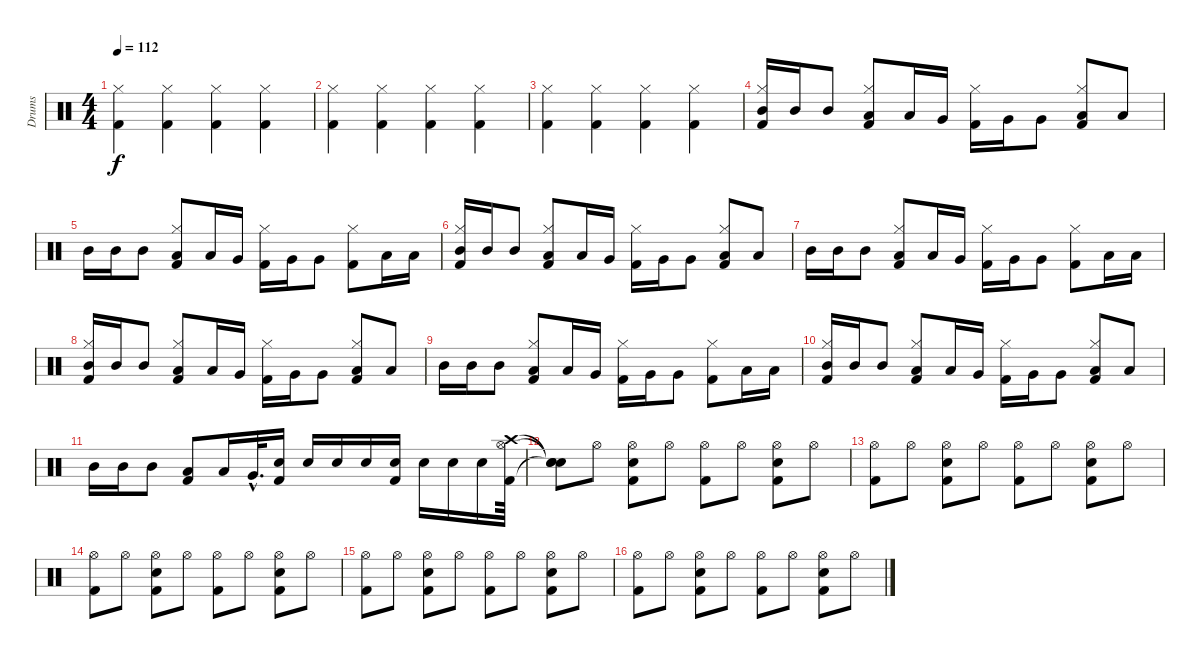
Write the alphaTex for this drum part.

\track ("Drums" "Drums") {instrument percussion}
\staff {score}
\articulation defaults
\ts (4 4)
\tempo 112
\clef neutral
\ks c
("Kick (hit) 2" "Hi-Hat (closed)").4{dy f} ("Hi-Hat (closed)" "Kick (hit) 2").4 ("Kick (hit) 2" "Hi-Hat (closed)").4 ("Hi-Hat (closed)" "Kick (hit) 2").4 |
("Kick (hit) 2" "Hi-Hat (closed)").4 ("Hi-Hat (closed)" "Kick (hit) 2").4 ("Kick (hit) 2" "Hi-Hat (closed)").4 ("Hi-Hat (closed)" "Kick (hit) 2").4 |
("Kick (hit) 2" "Hi-Hat (closed)").4 ("Hi-Hat (closed)" "Kick (hit) 2").4 ("Kick (hit) 2" "Hi-Hat (closed)").4 ("Hi-Hat (closed)" "Kick (hit) 2").4 |
("Hi-Hat (closed)" "Kick (hit) 2" "Mid Tom (hit)").16 "Mid Tom (hit)".16 "Mid Tom (hit)".8 ("Hi-Hat (closed)" "Low Tom (hit)" "Kick (hit) 2").8 "Low Tom (hit)".16 "Very Low Tom (hit)".16 ("Kick (hit) 2" "Hi-Hat (closed)").16 "Very Low Tom (hit)".16 "Very Low Tom (hit)".8 ("Low Floor Tom (hit)" "Kick (hit) 2" "Hi-Hat (closed)").8 "Low Floor Tom (hit)".8 |
"Mid Tom (hit)".16 "Mid Tom (hit)".16 "Mid Tom (hit)".8 ("Hi-Hat (closed)" "Kick (hit) 2" "Low Tom (hit)").8 "Low Tom (hit)".16 "Very Low Tom (hit)".16 ("Kick (hit) 2" "Hi-Hat (closed)").16 "Very Low Tom (hit)".16 "Very Low Tom (hit)".8 ("Kick (hit) 2" "Hi-Hat (closed)").8 "Low Floor Tom (hit)".16 "Low Floor Tom (hit)".16 |
("Hi-Hat (closed)" "Kick (hit) 2" "Mid Tom (hit)").16 "Mid Tom (hit)".16 "Mid Tom (hit)".8 ("Hi-Hat (closed)" "Low Tom (hit)" "Kick (hit) 2").8 "Low Tom (hit)".16 "Very Low Tom (hit)".16 ("Kick (hit) 2" "Hi-Hat (closed)").16 "Very Low Tom (hit)".16 "Very Low Tom (hit)".8 ("Low Floor Tom (hit)" "Kick (hit) 2" "Hi-Hat (closed)").8 "Low Floor Tom (hit)".8 |
"Mid Tom (hit)".16 "Mid Tom (hit)".16 "Mid Tom (hit)".8 ("Hi-Hat (closed)" "Kick (hit) 2" "Low Tom (hit)").8 "Low Tom (hit)".16 "Very Low Tom (hit)".16 ("Kick (hit) 2" "Hi-Hat (closed)").16 "Very Low Tom (hit)".16 "Very Low Tom (hit)".8 ("Kick (hit) 2" "Hi-Hat (closed)").8 "Low Floor Tom (hit)".16 "Low Floor Tom (hit)".16 |
("Hi-Hat (closed)" "Kick (hit) 2" "Mid Tom (hit)").16 "Mid Tom (hit)".16 "Mid Tom (hit)".8 ("Hi-Hat (closed)" "Low Tom (hit)" "Kick (hit) 2").8 "Low Tom (hit)".16 "Very Low Tom (hit)".16 ("Kick (hit) 2" "Hi-Hat (closed)").16 "Very Low Tom (hit)".16 "Very Low Tom (hit)".8 ("Low Floor Tom (hit)" "Kick (hit) 2" "Hi-Hat (closed)").8 "Low Floor Tom (hit)".8 |
"Mid Tom (hit)".16 "Mid Tom (hit)".16 "Mid Tom (hit)".8 ("Hi-Hat (closed)" "Kick (hit) 2" "Low Tom (hit)").8 "Low Tom (hit)".16 "Very Low Tom (hit)".16 ("Kick (hit) 2" "Hi-Hat (closed)").16 "Very Low Tom (hit)".16 "Very Low Tom (hit)".8 ("Kick (hit) 2" "Hi-Hat (closed)").8 "Low Floor Tom (hit)".16 "Low Floor Tom (hit)".16 |
("Hi-Hat (closed)" "Kick (hit) 2" "Mid Tom (hit)").16 "Mid Tom (hit)".16 "Mid Tom (hit)".8 ("Hi-Hat (closed)" "Low Tom (hit)" "Kick (hit) 2").8 "Low Tom (hit)".16 "Very Low Tom (hit)".16 ("Kick (hit) 2" "Hi-Hat (closed)").16 "Very Low Tom (hit)".16 "Very Low Tom (hit)".8 ("Low Floor Tom (hit)" "Kick (hit) 2" "Hi-Hat (closed)").8 "Low Floor Tom (hit)".8 |
"Mid Tom (hit)".16 "Mid Tom (hit)".16 "Mid Tom (hit)".8 ("Kick (hit) 2" "Low Tom (hit)").8 "Low Tom (hit)".16 "Very Low Tom (hit)"{hac}.32{d} ("Snare (hit) 2" "Kick (hit) 2").16 "Snare (hit) 2".16 "Snare (hit) 2".16 "Snare (hit) 2".16 ("Snare (hit) 2" "Kick (hit) 2").16 "Snare (hit) 2".16 "Snare (hit) 2".16 "Snare (hit) 2".16 ("Kick (hit) 2" "Crash high (hit)" "Hi-Hat (open)").64 |
("Snare (hit)"{t} "Snare (hit)"{t} "Snare (hit)"{t}).8 "Hi-Hat (open)".8 ("Hi-Hat (open)" "Kick (hit) 2" "Snare (hit) 2").8 "Hi-Hat (open)".8 ("Kick (hit) 2" "Hi-Hat (open)").8 "Hi-Hat (open)".8 ("Kick (hit) 2" "Hi-Hat (open)" "Snare (hit) 2").8 "Hi-Hat (open)".8 |
("Hi-Hat (open)" "Kick (hit) 2").8 "Hi-Hat (open)".8 ("Hi-Hat (open)" "Kick (hit) 2" "Snare (hit) 2").8 "Hi-Hat (open)".8 ("Kick (hit) 2" "Hi-Hat (open)").8 "Hi-Hat (open)".8 ("Kick (hit) 2" "Snare (hit) 2" "Hi-Hat (open)").8 "Hi-Hat (open)".8 |
("Hi-Hat (open)" "Kick (hit) 2").8 "Hi-Hat (open)".8 ("Hi-Hat (open)" "Kick (hit) 2" "Snare (hit) 2").8 "Hi-Hat (open)".8 ("Kick (hit) 2" "Hi-Hat (open)").8 "Hi-Hat (open)".8 ("Kick (hit) 2" "Snare (hit) 2" "Hi-Hat (open)").8 "Hi-Hat (open)".8 |
("Hi-Hat (open)" "Kick (hit) 2").8 "Hi-Hat (open)".8 ("Hi-Hat (open)" "Kick (hit) 2" "Snare (hit) 2").8 "Hi-Hat (open)".8 ("Kick (hit) 2" "Hi-Hat (open)").8 "Hi-Hat (open)".8 ("Kick (hit) 2" "Snare (hit) 2" "Hi-Hat (open)").8 "Hi-Hat (open)".8 |
("Hi-Hat (open)" "Kick (hit) 2").8 "Hi-Hat (open)".8 ("Hi-Hat (open)" "Kick (hit) 2" "Snare (hit) 2").8 "Hi-Hat (open)".8 ("Kick (hit) 2" "Hi-Hat (open)").8 "Hi-Hat (open)".8 ("Kick (hit) 2" "Snare (hit) 2" "Hi-Hat (open)").8 "Hi-Hat (open)".8
